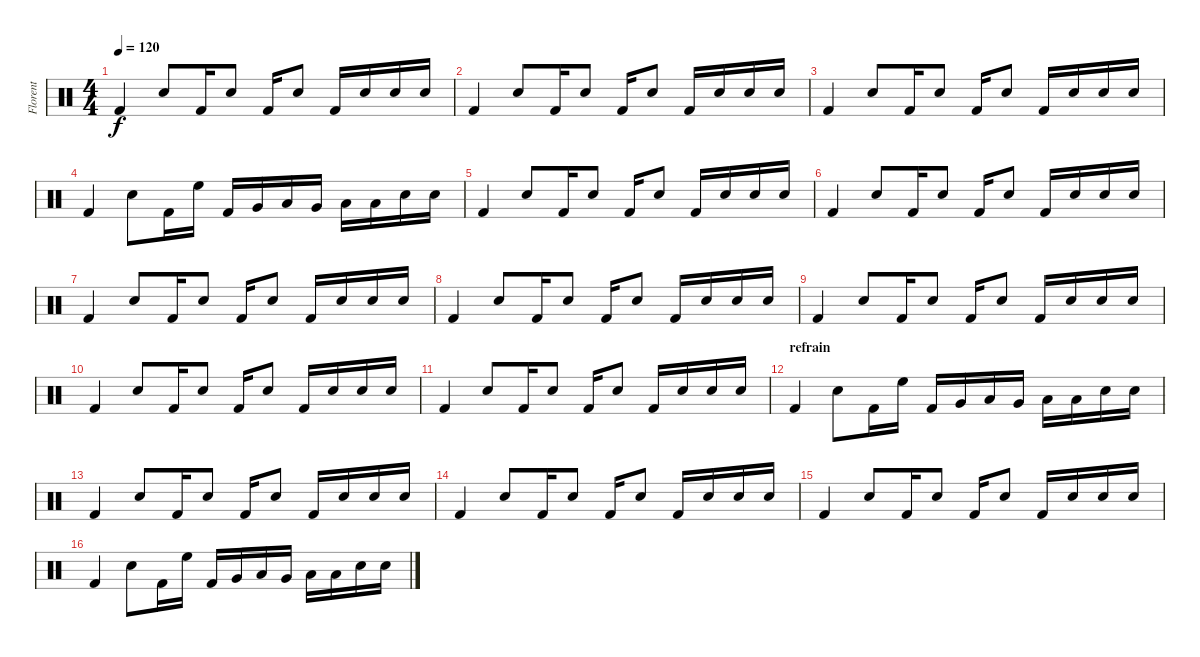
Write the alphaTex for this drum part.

\track ("Florent" "Florent") {instrument percussion}
\staff {score}
\articulation defaults
\ts (4 4)
\tempo 120
\clef neutral
\ks c "Kick (hit) 2".4{dy f} "Electric Snare (hit)".8 "Kick (hit) 2".16 "Electric Snare (hit)".8 "Kick (hit) 2".16 "Electric Snare (hit)".8 "Kick (hit) 2".16 "Electric Snare (hit)".16 "Electric Snare (hit)".16 "Electric Snare (hit)".16
|
"Kick (hit) 2".4 "Electric Snare (hit)".8 "Kick (hit) 2".16 "Electric Snare (hit)".8 "Kick (hit) 2".16 "Electric Snare (hit)".8 "Kick (hit) 2".16 "Electric Snare (hit)".16 "Electric Snare (hit)".16 "Electric Snare (hit)".16 |
"Kick (hit) 2".4 "Electric Snare (hit)".8 "Kick (hit) 2".16 "Electric Snare (hit)".8 "Kick (hit) 2".16 "Electric Snare (hit)".8 "Kick (hit) 2".16 "Electric Snare (hit)".16 "Electric Snare (hit)".16 "Electric Snare (hit)".16 |
"Kick (hit) 2".4 "Electric Snare (hit)".8 "Kick (hit) 2".16 "High Floor Tom (hit)".16 "Kick (hit) 2".16 "Very Low Tom (hit)".16 "Low Tom (hit)".16 "Very Low Tom (hit)".16 "Low Tom (hit)".16 "Low Tom (hit)".16 "Electric Snare (hit)".16 "Electric Snare (hit)".16 |
"Kick (hit) 2".4 "Electric Snare (hit)".8 "Kick (hit) 2".16 "Electric Snare (hit)".8 "Kick (hit) 2".16 "Electric Snare (hit)".8 "Kick (hit) 2".16 "Electric Snare (hit)".16 "Electric Snare (hit)".16 "Electric Snare (hit)".16 |
"Kick (hit) 2".4 "Electric Snare (hit)".8 "Kick (hit) 2".16 "Electric Snare (hit)".8 "Kick (hit) 2".16 "Electric Snare (hit)".8 "Kick (hit) 2".16 "Electric Snare (hit)".16 "Electric Snare (hit)".16 "Electric Snare (hit)".16 |
"Kick (hit) 2".4 "Electric Snare (hit)".8 "Kick (hit) 2".16 "Electric Snare (hit)".8 "Kick (hit) 2".16 "Electric Snare (hit)".8 "Kick (hit) 2".16 "Electric Snare (hit)".16 "Electric Snare (hit)".16 "Electric Snare (hit)".16 |
"Kick (hit) 2".4 "Electric Snare (hit)".8 "Kick (hit) 2".16 "Electric Snare (hit)".8 "Kick (hit) 2".16 "Electric Snare (hit)".8 "Kick (hit) 2".16 "Electric Snare (hit)".16 "Electric Snare (hit)".16 "Electric Snare (hit)".16 |
"Kick (hit) 2".4 "Electric Snare (hit)".8 "Kick (hit) 2".16 "Electric Snare (hit)".8 "Kick (hit) 2".16 "Electric Snare (hit)".8 "Kick (hit) 2".16 "Electric Snare (hit)".16 "Electric Snare (hit)".16 "Electric Snare (hit)".16 |
"Kick (hit) 2".4 "Electric Snare (hit)".8 "Kick (hit) 2".16 "Electric Snare (hit)".8 "Kick (hit) 2".16 "Electric Snare (hit)".8 "Kick (hit) 2".16 "Electric Snare (hit)".16 "Electric Snare (hit)".16 "Electric Snare (hit)".16 |
"Kick (hit) 2".4 "Electric Snare (hit)".8 "Kick (hit) 2".16 "Electric Snare (hit)".8 "Kick (hit) 2".16 "Electric Snare (hit)".8 "Kick (hit) 2".16 "Electric Snare (hit)".16 "Electric Snare (hit)".16 "Electric Snare (hit)".16 |
\section ("" "refrain")
"Kick (hit) 2".4 "Electric Snare (hit)".8 "Kick (hit) 2".16 "High Floor Tom (hit)".16 "Kick (hit) 2".16 "Very Low Tom (hit)".16 "Low Tom (hit)".16 "Very Low Tom (hit)".16 "Low Tom (hit)".16 "Low Tom (hit)".16 "Electric Snare (hit)".16 "Electric Snare (hit)".16 |
"Kick (hit) 2".4 "Electric Snare (hit)".8 "Kick (hit) 2".16 "Electric Snare (hit)".8 "Kick (hit) 2".16 "Electric Snare (hit)".8 "Kick (hit) 2".16 "Electric Snare (hit)".16 "Electric Snare (hit)".16 "Electric Snare (hit)".16 |
"Kick (hit) 2".4 "Electric Snare (hit)".8 "Kick (hit) 2".16 "Electric Snare (hit)".8 "Kick (hit) 2".16 "Electric Snare (hit)".8 "Kick (hit) 2".16 "Electric Snare (hit)".16 "Electric Snare (hit)".16 "Electric Snare (hit)".16 |
"Kick (hit) 2".4 "Electric Snare (hit)".8 "Kick (hit) 2".16 "Electric Snare (hit)".8 "Kick (hit) 2".16 "Electric Snare (hit)".8 "Kick (hit) 2".16 "Electric Snare (hit)".16 "Electric Snare (hit)".16 "Electric Snare (hit)".16 |
"Kick (hit) 2".4 "Electric Snare (hit)".8 "Kick (hit) 2".16 "High Floor Tom (hit)".16 "Kick (hit) 2".16 "Very Low Tom (hit)".16 "Low Tom (hit)".16 "Very Low Tom (hit)".16 "Low Tom (hit)".16 "Low Tom (hit)".16 "Electric Snare (hit)".16 "Electric Snare (hit)".16
